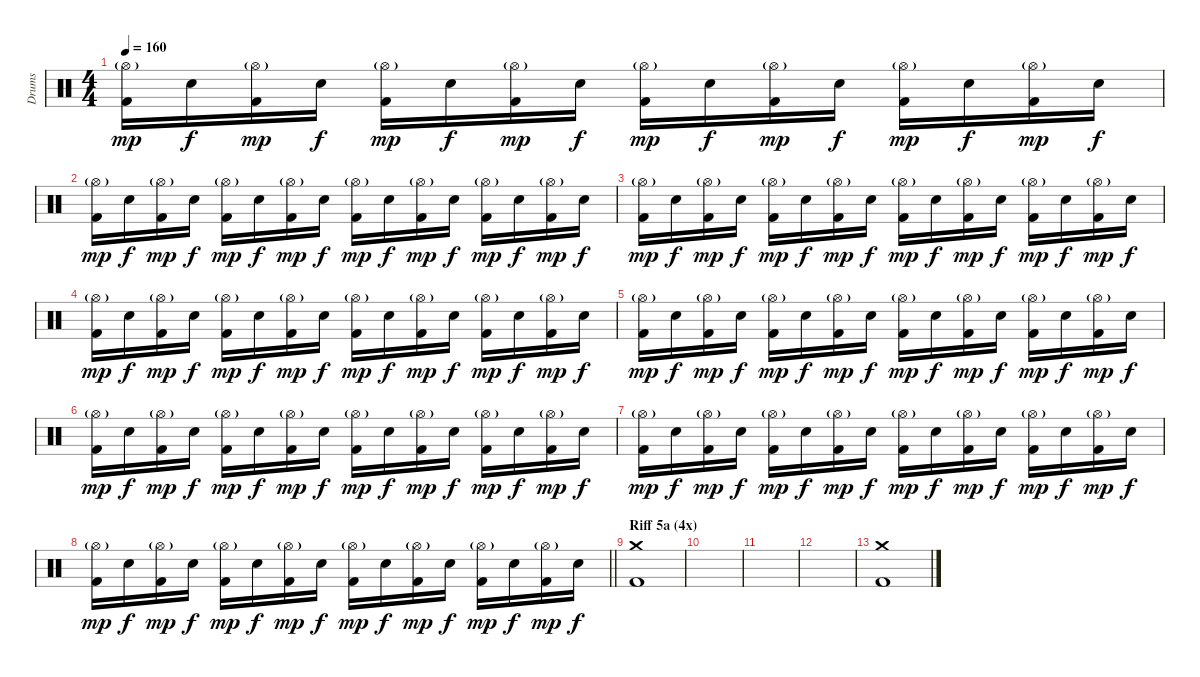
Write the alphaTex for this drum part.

\track ("Drums" "Drums") {instrument percussion}
\staff {score}
\articulation defaults
\ts (4 4)
\tempo 160
\clef neutral
\ks c
("Hi-Hat (open)"{g} "Kick (hit) 2").16{dy mp} "Electric Snare (hit)".16{dy f} ("Hi-Hat (open)"{g} "Kick (hit) 2").16{dy mp} "Electric Snare (hit)".16{dy f} ("Hi-Hat (open)"{g} "Kick (hit) 2").16{dy mp} "Electric Snare (hit)".16{dy f} ("Hi-Hat (open)"{g} "Kick (hit) 2").16{dy mp} "Electric Snare (hit)".16{dy f} ("Hi-Hat (open)"{g} "Kick (hit) 2").16{dy mp} "Electric Snare (hit)".16{dy f} ("Hi-Hat (open)"{g} "Kick (hit) 2").16{dy mp} "Electric Snare (hit)".16{dy f} ("Hi-Hat (open)"{g} "Kick (hit) 2").16{dy mp} "Electric Snare (hit)".16{dy f} ("Hi-Hat (open)"{g} "Kick (hit) 2").16{dy mp} "Electric Snare (hit)".16{dy f} |
("Hi-Hat (open)"{g} "Kick (hit) 2").16{dy mp} "Electric Snare (hit)".16{dy f} ("Hi-Hat (open)"{g} "Kick (hit) 2").16{dy mp} "Electric Snare (hit)".16{dy f} ("Hi-Hat (open)"{g} "Kick (hit) 2").16{dy mp} "Electric Snare (hit)".16{dy f} ("Hi-Hat (open)"{g} "Kick (hit) 2").16{dy mp} "Electric Snare (hit)".16{dy f} ("Hi-Hat (open)"{g} "Kick (hit) 2").16{dy mp} "Electric Snare (hit)".16{dy f} ("Hi-Hat (open)"{g} "Kick (hit) 2").16{dy mp} "Electric Snare (hit)".16{dy f} ("Hi-Hat (open)"{g} "Kick (hit) 2").16{dy mp} "Electric Snare (hit)".16{dy f} ("Hi-Hat (open)"{g} "Kick (hit) 2").16{dy mp} "Electric Snare (hit)".16{dy f} |
("Hi-Hat (open)"{g} "Kick (hit) 2").16{dy mp} "Electric Snare (hit)".16{dy f} ("Hi-Hat (open)"{g} "Kick (hit) 2").16{dy mp} "Electric Snare (hit)".16{dy f} ("Hi-Hat (open)"{g} "Kick (hit) 2").16{dy mp} "Electric Snare (hit)".16{dy f} ("Hi-Hat (open)"{g} "Kick (hit) 2").16{dy mp} "Electric Snare (hit)".16{dy f} ("Hi-Hat (open)"{g} "Kick (hit) 2").16{dy mp} "Electric Snare (hit)".16{dy f} ("Hi-Hat (open)"{g} "Kick (hit) 2").16{dy mp} "Electric Snare (hit)".16{dy f} ("Hi-Hat (open)"{g} "Kick (hit) 2").16{dy mp} "Electric Snare (hit)".16{dy f} ("Hi-Hat (open)"{g} "Kick (hit) 2").16{dy mp} "Electric Snare (hit)".16{dy f} |
("Hi-Hat (open)"{g} "Kick (hit) 2").16{dy mp} "Electric Snare (hit)".16{dy f} ("Hi-Hat (open)"{g} "Kick (hit) 2").16{dy mp} "Electric Snare (hit)".16{dy f} ("Hi-Hat (open)"{g} "Kick (hit) 2").16{dy mp} "Electric Snare (hit)".16{dy f} ("Hi-Hat (open)"{g} "Kick (hit) 2").16{dy mp} "Electric Snare (hit)".16{dy f} ("Hi-Hat (open)"{g} "Kick (hit) 2").16{dy mp} "Electric Snare (hit)".16{dy f} ("Hi-Hat (open)"{g} "Kick (hit) 2").16{dy mp} "Electric Snare (hit)".16{dy f} ("Hi-Hat (open)"{g} "Kick (hit) 2").16{dy mp} "Electric Snare (hit)".16{dy f} ("Hi-Hat (open)"{g} "Kick (hit) 2").16{dy mp} "Electric Snare (hit)".16{dy f} |
("Hi-Hat (open)"{g} "Kick (hit) 2").16{dy mp} "Electric Snare (hit)".16{dy f} ("Hi-Hat (open)"{g} "Kick (hit) 2").16{dy mp} "Electric Snare (hit)".16{dy f} ("Hi-Hat (open)"{g} "Kick (hit) 2").16{dy mp} "Electric Snare (hit)".16{dy f} ("Hi-Hat (open)"{g} "Kick (hit) 2").16{dy mp} "Electric Snare (hit)".16{dy f} ("Hi-Hat (open)"{g} "Kick (hit) 2").16{dy mp} "Electric Snare (hit)".16{dy f} ("Hi-Hat (open)"{g} "Kick (hit) 2").16{dy mp} "Electric Snare (hit)".16{dy f} ("Hi-Hat (open)"{g} "Kick (hit) 2").16{dy mp} "Electric Snare (hit)".16{dy f} ("Hi-Hat (open)"{g} "Kick (hit) 2").16{dy mp} "Electric Snare (hit)".16{dy f} |
("Hi-Hat (open)"{g} "Kick (hit) 2").16{dy mp} "Electric Snare (hit)".16{dy f} ("Hi-Hat (open)"{g} "Kick (hit) 2").16{dy mp} "Electric Snare (hit)".16{dy f} ("Hi-Hat (open)"{g} "Kick (hit) 2").16{dy mp} "Electric Snare (hit)".16{dy f} ("Hi-Hat (open)"{g} "Kick (hit) 2").16{dy mp} "Electric Snare (hit)".16{dy f} ("Hi-Hat (open)"{g} "Kick (hit) 2").16{dy mp} "Electric Snare (hit)".16{dy f} ("Hi-Hat (open)"{g} "Kick (hit) 2").16{dy mp} "Electric Snare (hit)".16{dy f} ("Hi-Hat (open)"{g} "Kick (hit) 2").16{dy mp} "Electric Snare (hit)".16{dy f} ("Hi-Hat (open)"{g} "Kick (hit) 2").16{dy mp} "Electric Snare (hit)".16{dy f} |
("Hi-Hat (open)"{g} "Kick (hit) 2").16{dy mp} "Electric Snare (hit)".16{dy f} ("Hi-Hat (open)"{g} "Kick (hit) 2").16{dy mp} "Electric Snare (hit)".16{dy f} ("Hi-Hat (open)"{g} "Kick (hit) 2").16{dy mp} "Electric Snare (hit)".16{dy f} ("Hi-Hat (open)"{g} "Kick (hit) 2").16{dy mp} "Electric Snare (hit)".16{dy f} ("Hi-Hat (open)"{g} "Kick (hit) 2").16{dy mp} "Electric Snare (hit)".16{dy f} ("Hi-Hat (open)"{g} "Kick (hit) 2").16{dy mp} "Electric Snare (hit)".16{dy f} ("Hi-Hat (open)"{g} "Kick (hit) 2").16{dy mp} "Electric Snare (hit)".16{dy f} ("Hi-Hat (open)"{g} "Kick (hit) 2").16{dy mp} "Electric Snare (hit)".16{dy f} |
\barLineRight lightlight
("Hi-Hat (open)"{g} "Kick (hit) 2").16{dy mp} "Electric Snare (hit)".16{dy f} ("Hi-Hat (open)"{g} "Kick (hit) 2").16{dy mp} "Electric Snare (hit)".16{dy f} ("Hi-Hat (open)"{g} "Kick (hit) 2").16{dy mp} "Electric Snare (hit)".16{dy f} ("Hi-Hat (open)"{g} "Kick (hit) 2").16{dy mp} "Electric Snare (hit)".16{dy f} ("Hi-Hat (open)"{g} "Kick (hit) 2").16{dy mp} "Electric Snare (hit)".16{dy f} ("Hi-Hat (open)"{g} "Kick (hit) 2").16{dy mp} "Electric Snare (hit)".16{dy f} ("Hi-Hat (open)"{g} "Kick (hit) 2").16{dy mp} "Electric Snare (hit)".16{dy f} ("Hi-Hat (open)"{g} "Kick (hit) 2").16{dy mp} "Electric Snare (hit)".16{dy f} |
\section ("" "Riff 5a (4x)")
("Crash medium (hit)" "Kick (hit) 2").1 |
|
|
|
("Crash medium (hit)" "Kick (hit) 2").1
